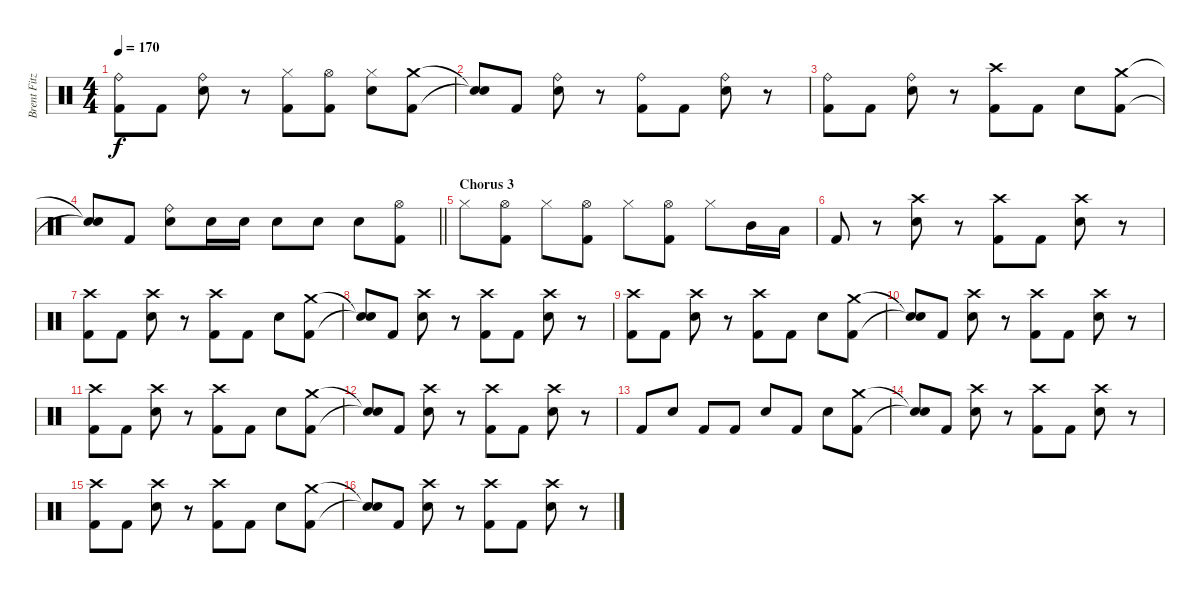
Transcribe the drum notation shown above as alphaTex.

\track ("Brent Fitz" "Brent Fitz") {instrument percussion}
\staff {score}
\articulation defaults
\ts (4 4)
\tempo 170
\clef neutral
\ks c
("Ride (bell)" "Kick (hit) 2").8{dy f} "Kick (hit) 2".8 ("Ride (bell)" "Electric Snare (hit)").8 r.8 ("Hi-Hat (closed)" "Kick (hit) 2").8 ("Hi-Hat (open)" "Kick (hit) 2").8 ("Hi-Hat (closed)" "Electric Snare (hit)").8 ("Crash medium (hit)" "Kick (hit) 2").8 |
("Snare (hit)"{t} "Snare (hit)"{t}).8 "Kick (hit) 2".8 ("Ride (bell)" "Electric Snare (hit)").8 r.8 ("Ride (bell)" "Kick (hit) 2").8 "Kick (hit) 2".8 ("Ride (bell)" "Electric Snare (hit)").8 r.8 |
("Ride (bell)" "Kick (hit) 2").8 "Kick (hit) 2".8 ("Ride (bell)" "Electric Snare (hit)").8 r.8 ("Crash high (hit)" "Kick (hit) 2").8 "Kick (hit) 2".8 "Electric Snare (hit)".8 ("Crash medium (hit)" "Kick (hit) 2").8 |
\barLineRight lightlight
("Snare (hit)"{t} "Snare (hit)"{t}).8 "Kick (hit) 2".8 ("Ride (bell)" "Electric Snare (hit)").8 "Electric Snare (hit)".16 "Electric Snare (hit)".16 "Electric Snare (hit)".8 "Electric Snare (hit)".8 "Electric Snare (hit)".8 ("Hi-Hat (open)" "Kick (hit) 2").8 |
\section ("" "Chorus 3")
"Hi-Hat (closed)".8 ("Hi-Hat (open)" "Kick (hit) 2").8 "Hi-Hat (closed)".8 ("Hi-Hat (open)" "Kick (hit) 2").8 "Hi-Hat (closed)".8 ("Hi-Hat (open)" "Kick (hit) 2").8 "Hi-Hat (closed)".8 "Mid Tom (hit)".16 "Low Tom (hit)".16 |
"Kick (hit) 2".8 r.8 ("Crash high (hit)" "Electric Snare (hit)").8 r.8 ("Crash high (hit)" "Kick (hit) 2").8 "Kick (hit) 2".8 ("Crash high (hit)" "Electric Snare (hit)").8 r.8 |
("Crash high (hit)" "Kick (hit) 2").8 "Kick (hit) 2".8 ("Crash high (hit)" "Electric Snare (hit)").8 r.8 ("Crash high (hit)" "Kick (hit) 2").8 "Kick (hit) 2".8 "Electric Snare (hit)".8 ("Crash medium (hit)" "Kick (hit) 2").8 |
("Snare (hit)"{t} "Snare (hit)"{t}).8 "Kick (hit) 2".8 ("Crash high (hit)" "Electric Snare (hit)").8 r.8 ("Crash high (hit)" "Kick (hit) 2").8 "Kick (hit) 2".8 ("Crash high (hit)" "Electric Snare (hit)").8 r.8 |
("Crash high (hit)" "Kick (hit) 2").8 "Kick (hit) 2".8 ("Crash high (hit)" "Electric Snare (hit)").8 r.8 ("Crash high (hit)" "Kick (hit) 2").8 "Kick (hit) 2".8 "Electric Snare (hit)".8 ("Crash medium (hit)" "Kick (hit) 2").8 |
("Snare (hit)"{t} "Snare (hit)"{t}).8 "Kick (hit) 2".8 ("Crash high (hit)" "Electric Snare (hit)").8 r.8 ("Crash high (hit)" "Kick (hit) 2").8 "Kick (hit) 2".8 ("Crash high (hit)" "Electric Snare (hit)").8 r.8 |
("Crash high (hit)" "Kick (hit) 2").8 "Kick (hit) 2".8 ("Crash high (hit)" "Electric Snare (hit)").8 r.8 ("Crash high (hit)" "Kick (hit) 2").8 "Kick (hit) 2".8 "Electric Snare (hit)".8 ("Crash medium (hit)" "Kick (hit) 2").8 |
("Snare (hit)"{t} "Snare (hit)"{t}).8 "Kick (hit) 2".8 ("Crash high (hit)" "Electric Snare (hit)").8 r.8 ("Crash high (hit)" "Kick (hit) 2").8 "Kick (hit) 2".8 ("Crash high (hit)" "Electric Snare (hit)").8 r.8 |
"Kick (hit) 2".8 "Electric Snare (hit)".8 "Kick (hit) 2".8 "Kick (hit) 2".8 "Electric Snare (hit)".8 "Kick (hit) 2".8 "Electric Snare (hit)".8 ("Crash medium (hit)" "Kick (hit) 2").8 |
("Snare (hit)"{t} "Snare (hit)"{t}).8 "Kick (hit) 2".8 ("Crash high (hit)" "Electric Snare (hit)").8 r.8 ("Crash high (hit)" "Kick (hit) 2").8 "Kick (hit) 2".8 ("Crash high (hit)" "Electric Snare (hit)").8 r.8 |
("Crash high (hit)" "Kick (hit) 2").8 "Kick (hit) 2".8 ("Crash high (hit)" "Electric Snare (hit)").8 r.8 ("Crash high (hit)" "Kick (hit) 2").8 "Kick (hit) 2".8 "Electric Snare (hit)".8 ("Crash medium (hit)" "Kick (hit) 2").8 |
("Snare (hit)"{t} "Snare (hit)"{t}).8 "Kick (hit) 2".8 ("Crash high (hit)" "Electric Snare (hit)").8 r.8 ("Crash high (hit)" "Kick (hit) 2").8 "Kick (hit) 2".8 ("Crash high (hit)" "Electric Snare (hit)").8 r.8
